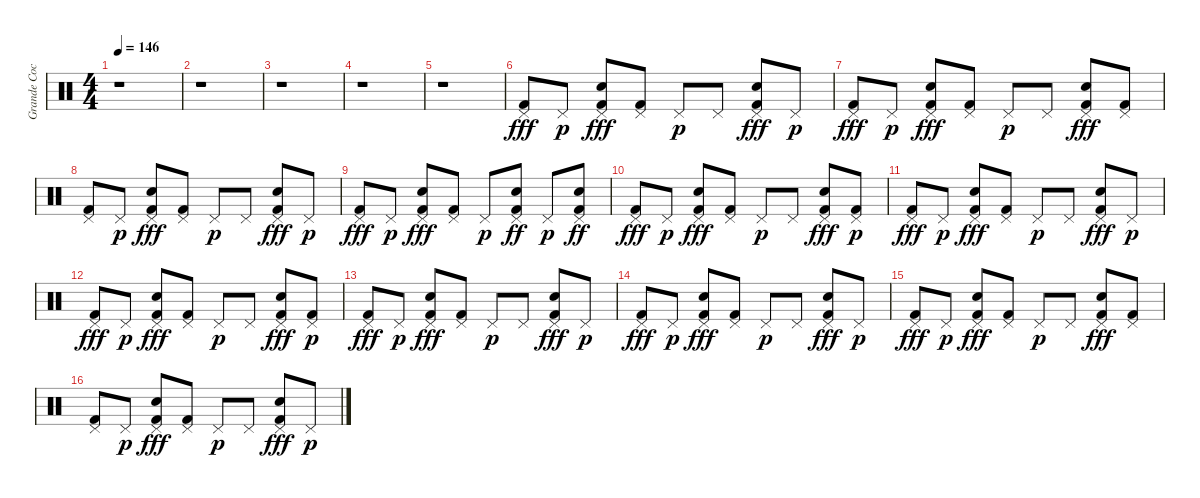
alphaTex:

\track ("Grande Coco !" "Grande Coc") {instrument percussion}
\staff {score}
\articulation defaults
\ts (4 4)
\tempo 146
\clef neutral
\ks c
r.1{dy fff} |
r.1 |
r.1 |
r.1 |
r.1 |
("Pedal Hi-Hat (hit)" "Kick (hit) 2").8 "Pedal Hi-Hat (hit)".8{dy p} ("Pedal Hi-Hat (hit)" "Electric Snare (hit)" "Kick (hit) 2").8{dy fff} ("Pedal Hi-Hat (hit)" "Kick (hit) 2").8 "Pedal Hi-Hat (hit)".8{dy p} "Pedal Hi-Hat (hit)".8 ("Pedal Hi-Hat (hit)" "Electric Snare (hit)" "Kick (hit) 2").8{dy fff} "Pedal Hi-Hat (hit)".8{dy p} |
("Pedal Hi-Hat (hit)" "Kick (hit) 2").8{dy fff} "Pedal Hi-Hat (hit)".8{dy p} ("Pedal Hi-Hat (hit)" "Electric Snare (hit)" "Kick (hit) 2").8{dy fff} ("Pedal Hi-Hat (hit)" "Kick (hit) 2").8 "Pedal Hi-Hat (hit)".8{dy p} "Pedal Hi-Hat (hit)".8 ("Pedal Hi-Hat (hit)" "Electric Snare (hit)" "Kick (hit) 2").8{dy fff} ("Pedal Hi-Hat (hit)" "Kick (hit) 2").8 |
("Pedal Hi-Hat (hit)" "Kick (hit) 2").8 "Pedal Hi-Hat (hit)".8{dy p} ("Pedal Hi-Hat (hit)" "Electric Snare (hit)" "Kick (hit) 2").8{dy fff} ("Pedal Hi-Hat (hit)" "Kick (hit) 2").8 "Pedal Hi-Hat (hit)".8{dy p} "Pedal Hi-Hat (hit)".8 ("Pedal Hi-Hat (hit)" "Electric Snare (hit)" "Kick (hit) 2").8{dy fff} "Pedal Hi-Hat (hit)".8{dy p} |
("Pedal Hi-Hat (hit)" "Kick (hit) 2").8{dy fff} "Pedal Hi-Hat (hit)".8{dy p} ("Pedal Hi-Hat (hit)" "Electric Snare (hit)" "Kick (hit) 2").8{dy fff} ("Pedal Hi-Hat (hit)" "Kick (hit) 2").8 "Pedal Hi-Hat (hit)".8{dy p} ("Pedal Hi-Hat (hit)" "Electric Snare (hit)" "Kick (hit) 2").8{dy ff} "Pedal Hi-Hat (hit)".8{dy p} ("Pedal Hi-Hat (hit)" "Electric Snare (hit)" "Kick (hit) 2").8{dy ff} |
("Pedal Hi-Hat (hit)" "Kick (hit) 2").8{dy fff} "Pedal Hi-Hat (hit)".8{dy p} ("Pedal Hi-Hat (hit)" "Electric Snare (hit)" "Kick (hit) 2").8{dy fff} ("Pedal Hi-Hat (hit)" "Kick (hit) 2").8 "Pedal Hi-Hat (hit)".8{dy p} "Pedal Hi-Hat (hit)".8 ("Pedal Hi-Hat (hit)" "Electric Snare (hit)" "Kick (hit) 2").8{dy fff} ("Pedal Hi-Hat (hit)" "Kick (hit) 2").8{dy p} |
("Pedal Hi-Hat (hit)" "Kick (hit) 2").8{dy fff} "Pedal Hi-Hat (hit)".8{dy p} ("Pedal Hi-Hat (hit)" "Electric Snare (hit)" "Kick (hit) 2").8{dy fff} ("Pedal Hi-Hat (hit)" "Kick (hit) 2").8 "Pedal Hi-Hat (hit)".8{dy p} "Pedal Hi-Hat (hit)".8 ("Pedal Hi-Hat (hit)" "Electric Snare (hit)" "Kick (hit) 2").8{dy fff} "Pedal Hi-Hat (hit)".8{dy p} |
("Pedal Hi-Hat (hit)" "Kick (hit) 2").8{dy fff} "Pedal Hi-Hat (hit)".8{dy p} ("Pedal Hi-Hat (hit)" "Electric Snare (hit)" "Kick (hit) 2").8{dy fff} ("Pedal Hi-Hat (hit)" "Kick (hit) 2").8 "Pedal Hi-Hat (hit)".8{dy p} "Pedal Hi-Hat (hit)".8 ("Pedal Hi-Hat (hit)" "Electric Snare (hit)" "Kick (hit) 2").8{dy fff} ("Pedal Hi-Hat (hit)" "Kick (hit) 2").8{dy p} |
("Pedal Hi-Hat (hit)" "Kick (hit) 2").8{dy fff} "Pedal Hi-Hat (hit)".8{dy p} ("Pedal Hi-Hat (hit)" "Electric Snare (hit)" "Kick (hit) 2").8{dy fff} ("Pedal Hi-Hat (hit)" "Kick (hit) 2").8 "Pedal Hi-Hat (hit)".8{dy p} "Pedal Hi-Hat (hit)".8 ("Pedal Hi-Hat (hit)" "Electric Snare (hit)" "Kick (hit) 2").8{dy fff} "Pedal Hi-Hat (hit)".8{dy p} |
("Pedal Hi-Hat (hit)" "Kick (hit) 2").8{dy fff} "Pedal Hi-Hat (hit)".8{dy p} ("Pedal Hi-Hat (hit)" "Electric Snare (hit)" "Kick (hit) 2").8{dy fff} ("Pedal Hi-Hat (hit)" "Kick (hit) 2").8 "Pedal Hi-Hat (hit)".8{dy p} "Pedal Hi-Hat (hit)".8 ("Pedal Hi-Hat (hit)" "Electric Snare (hit)" "Kick (hit) 2").8{dy fff} "Pedal Hi-Hat (hit)".8{dy p} |
("Pedal Hi-Hat (hit)" "Kick (hit) 2").8{dy fff} "Pedal Hi-Hat (hit)".8{dy p} ("Pedal Hi-Hat (hit)" "Electric Snare (hit)" "Kick (hit) 2").8{dy fff} ("Pedal Hi-Hat (hit)" "Kick (hit) 2").8 "Pedal Hi-Hat (hit)".8{dy p} "Pedal Hi-Hat (hit)".8 ("Pedal Hi-Hat (hit)" "Electric Snare (hit)" "Kick (hit) 2").8{dy fff} ("Pedal Hi-Hat (hit)" "Kick (hit) 2").8 |
("Pedal Hi-Hat (hit)" "Kick (hit) 2").8 "Pedal Hi-Hat (hit)".8{dy p} ("Pedal Hi-Hat (hit)" "Electric Snare (hit)" "Kick (hit) 2").8{dy fff} ("Pedal Hi-Hat (hit)" "Kick (hit) 2").8 "Pedal Hi-Hat (hit)".8{dy p} "Pedal Hi-Hat (hit)".8 ("Pedal Hi-Hat (hit)" "Electric Snare (hit)" "Kick (hit) 2").8{dy fff} "Pedal Hi-Hat (hit)".8{dy p}
